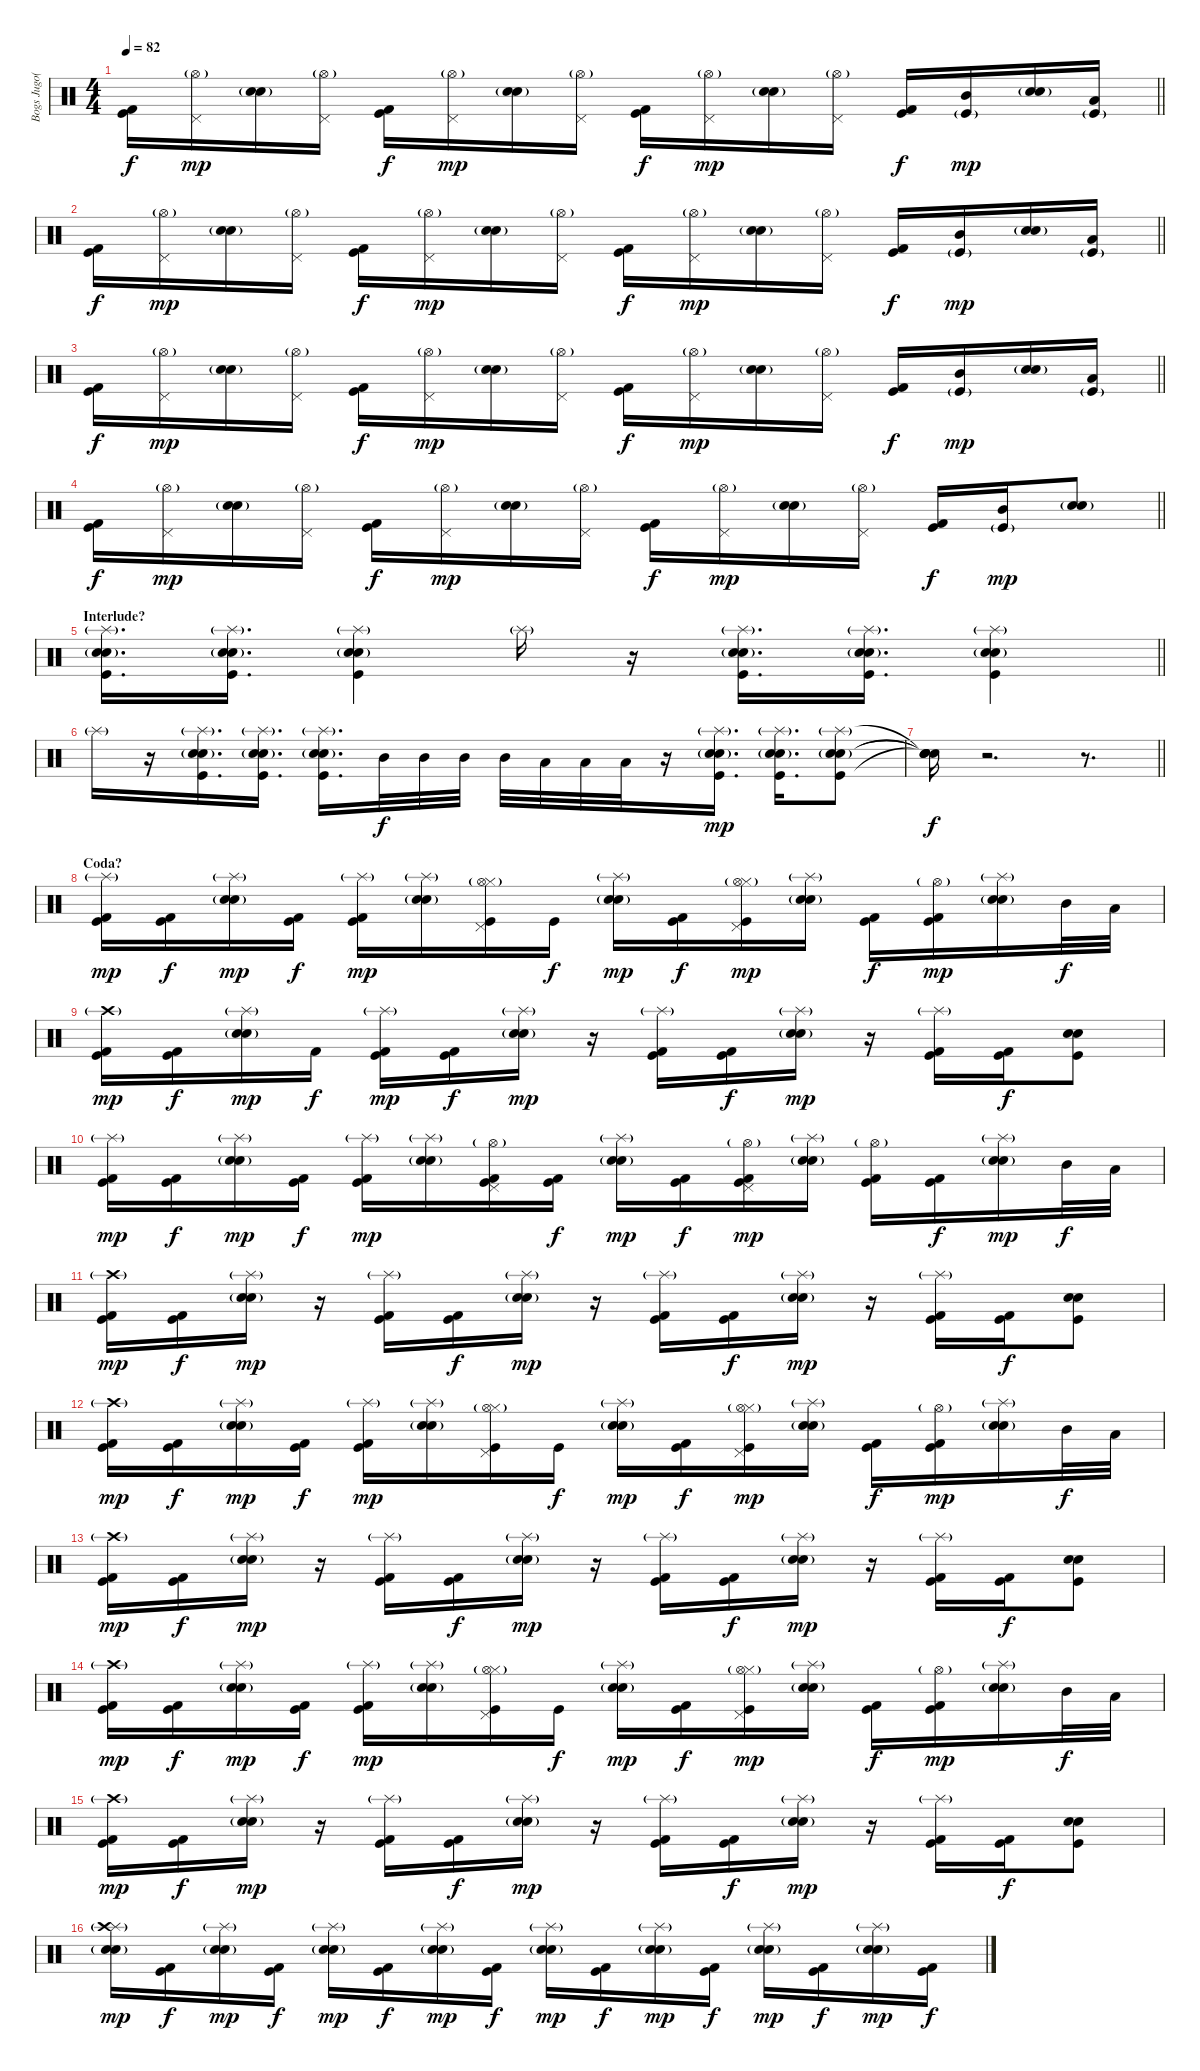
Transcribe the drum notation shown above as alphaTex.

\track ("Bogs Jugo(Drums)" "Bogs Jugo(") {instrument percussion}
\staff {score}
\articulation defaults
\ts (4 4)
\section ("" "")
\tempo 82
\clef neutral
\barLineRight lightlight
\ks c
("Kick (hit) 2" "Kick (hit)").16{dy f} ("Pedal Hi-Hat (hit)" "Hi-Hat (open)"{g}).16{dy mp} ("Electric Snare (hit)" "Snare (hit) 2"{g}).16 ("Pedal Hi-Hat (hit)" "Hi-Hat (open)"{g}).16 ("Kick (hit) 2" "Kick (hit)").16{dy f} ("Pedal Hi-Hat (hit)" "Hi-Hat (open)"{g}).16{dy mp} ("Electric Snare (hit)" "Snare (hit) 2"{g}).16 ("Pedal Hi-Hat (hit)" "Hi-Hat (open)"{g}).16 ("Kick (hit) 2" "Kick (hit)").16{dy f} ("Pedal Hi-Hat (hit)" "Hi-Hat (open)"{g}).16{dy mp} ("Electric Snare (hit)" "Snare (hit) 2"{g}).16 ("Pedal Hi-Hat (hit)" "Hi-Hat (open)"{g}).16 ("Kick (hit) 2" "Kick (hit)").16{dy f} ("Mid Tom (hit)" "Kick (hit)"{g}).16{dy mp} ("Electric Snare (hit)" "Snare (hit) 2"{g}).16 ("Low Tom (hit)" "Kick (hit)"{g}).16 |
\barLineRight lightlight
("Kick (hit) 2" "Kick (hit)").16{dy f} ("Pedal Hi-Hat (hit)" "Hi-Hat (open)"{g}).16{dy mp} ("Electric Snare (hit)" "Snare (hit) 2"{g}).16 ("Pedal Hi-Hat (hit)" "Hi-Hat (open)"{g}).16 ("Kick (hit) 2" "Kick (hit)").16{dy f} ("Pedal Hi-Hat (hit)" "Hi-Hat (open)"{g}).16{dy mp} ("Electric Snare (hit)" "Snare (hit) 2"{g}).16 ("Pedal Hi-Hat (hit)" "Hi-Hat (open)"{g}).16 ("Kick (hit) 2" "Kick (hit)").16{dy f} ("Pedal Hi-Hat (hit)" "Hi-Hat (open)"{g}).16{dy mp} ("Electric Snare (hit)" "Snare (hit) 2"{g}).16 ("Pedal Hi-Hat (hit)" "Hi-Hat (open)"{g}).16 ("Kick (hit) 2" "Kick (hit)").16{dy f} ("Mid Tom (hit)" "Kick (hit)"{g}).16{dy mp} ("Electric Snare (hit)" "Snare (hit) 2"{g}).16 ("Low Tom (hit)" "Kick (hit)"{g}).16 |
\barLineRight lightlight
("Kick (hit) 2" "Kick (hit)").16{dy f} ("Pedal Hi-Hat (hit)" "Hi-Hat (open)"{g}).16{dy mp} ("Electric Snare (hit)" "Snare (hit) 2"{g}).16 ("Pedal Hi-Hat (hit)" "Hi-Hat (open)"{g}).16 ("Kick (hit) 2" "Kick (hit)").16{dy f} ("Pedal Hi-Hat (hit)" "Hi-Hat (open)"{g}).16{dy mp} ("Electric Snare (hit)" "Snare (hit) 2"{g}).16 ("Pedal Hi-Hat (hit)" "Hi-Hat (open)"{g}).16 ("Kick (hit) 2" "Kick (hit)").16{dy f} ("Pedal Hi-Hat (hit)" "Hi-Hat (open)"{g}).16{dy mp} ("Electric Snare (hit)" "Snare (hit) 2"{g}).16 ("Pedal Hi-Hat (hit)" "Hi-Hat (open)"{g}).16 ("Kick (hit) 2" "Kick (hit)").16{dy f} ("Mid Tom (hit)" "Kick (hit)"{g}).16{dy mp} ("Electric Snare (hit)" "Snare (hit) 2"{g}).16 ("Low Tom (hit)" "Kick (hit)"{g}).16 |
\barLineRight lightlight
("Kick (hit) 2" "Kick (hit)").16{dy f} ("Pedal Hi-Hat (hit)" "Hi-Hat (open)"{g}).16{dy mp} ("Electric Snare (hit)" "Snare (hit) 2"{g}).16 ("Pedal Hi-Hat (hit)" "Hi-Hat (open)"{g}).16 ("Kick (hit) 2" "Kick (hit)").16{dy f} ("Pedal Hi-Hat (hit)" "Hi-Hat (open)"{g}).16{dy mp} ("Electric Snare (hit)" "Snare (hit) 2"{g}).16 ("Pedal Hi-Hat (hit)" "Hi-Hat (open)"{g}).16 ("Kick (hit) 2" "Kick (hit)").16{dy f} ("Pedal Hi-Hat (hit)" "Hi-Hat (open)"{g}).16{dy mp} ("Electric Snare (hit)" "Snare (hit) 2"{g}).16 ("Pedal Hi-Hat (hit)" "Hi-Hat (open)"{g}).16 ("Kick (hit) 2" "Kick (hit)").16{dy f} ("Mid Tom (hit)" "Kick (hit)"{g}).16{dy mp} ("Electric Snare (hit)" "Snare (hit) 2"{g}).8 |
\section ("" "Interlude?")
\barLineRight lightlight
("Electric Snare (hit)" "Snare (hit) 2"{g} "Splash (hit)"{g} "Kick (hit)").16{d} ("Electric Snare (hit)" "Snare (hit) 2"{g} "Splash (hit)"{g} "Kick (hit)").16{d} ("Electric Snare (hit)" "Snare (hit) 2"{g} "Splash (hit)"{g} "Kick (hit)").4 "Splash (hit)"{g}.16 r.16 ("Electric Snare (hit)" "Snare (hit) 2"{g} "Splash (hit)"{g} "Kick (hit)").16{d} ("Electric Snare (hit)" "Snare (hit) 2"{g} "Splash (hit)"{g} "Kick (hit)").16{d} ("Electric Snare (hit)" "Snare (hit) 2"{g} "Splash (hit)"{g} "Kick (hit)").4 |
"Splash (hit)"{g}.16 r.16 ("Electric Snare (hit)" "Snare (hit) 2"{g} "Splash (hit)"{g} "Kick (hit)").16{d} ("Electric Snare (hit)" "Snare (hit) 2"{g} "Splash (hit)"{g} "Kick (hit)").16{d} ("Electric Snare (hit)" "Snare (hit) 2"{g} "Splash (hit)"{g} "Kick (hit)").16{d} "Mid Tom (hit)".32{dy f} "Mid Tom (hit)".32 "Mid Tom (hit)".32 "Mid Tom (hit)".32 "Low Tom (hit)".32 "Low Tom (hit)".32 "Low Tom (hit)".32 r.16 ("Electric Snare (hit)" "Snare (hit) 2"{g} "Splash (hit)"{g} "Kick (hit)").16{d dy mp} ("Electric Snare (hit)" "Snare (hit) 2"{g} "Splash (hit)"{g} "Kick (hit)").16{d} ("Electric Snare (hit)" "Snare (hit) 2"{g} "Splash (hit)"{g} "Kick (hit)").8 |
\barLineRight lightlight
("Snare (hit)"{t} "Snare (hit)"{t} "Snare (hit)"{t} "Snare (hit)"{t}).16{dy f} r.2{d} r.8{d} |
\section ("" "Coda?")
("Kick (hit) 2" "Kick (hit)" "Splash (hit)"{g}).16{dy mp} ("Kick (hit) 2" "Kick (hit)").16{dy f} ("Electric Snare (hit)" "Snare (hit) 2"{g} "Splash (hit)"{g}).16{dy mp} ("Kick (hit) 2" "Kick (hit)").16{dy f} ("Kick (hit) 2" "Kick (hit)" "Splash (hit)"{g}).16{dy mp} ("Electric Snare (hit)" "Snare (hit) 2"{g} "Splash (hit)"{g}).16 ("Pedal Hi-Hat (hit)" "Hi-Hat (closed)" "Kick (hit)" "Hi-Hat (open)"{g}).16 "Kick (hit)".16{dy f} ("Electric Snare (hit)" "Snare (hit) 2"{g} "Splash (hit)"{g}).16{dy mp} ("Kick (hit) 2" "Kick (hit)").16{dy f} ("Pedal Hi-Hat (hit)" "Hi-Hat (closed)" "Kick (hit)" "Hi-Hat (open)"{g}).16{dy mp} ("Electric Snare (hit)" "Snare (hit) 2"{g} "Splash (hit)"{g}).16 ("Kick (hit) 2" "Kick (hit)").16{dy f} ("Kick (hit) 2" "Kick (hit)" "Hi-Hat (open)"{g}).16{dy mp} ("Electric Snare (hit)" "Snare (hit) 2"{g} "Splash (hit)"{g}).16 "Mid Tom (hit)".32{dy f} "Low Tom (hit)".32 |
("Crash high (hit)"{g} "Kick (hit) 2" "Kick (hit)").16{dy mp} ("Kick (hit) 2" "Kick (hit)").16{dy f} ("Electric Snare (hit)" "Snare (hit) 2"{g} "Splash (hit)"{g}).16{dy mp} "Kick (hit) 2".16{dy f} ("Kick (hit) 2" "Kick (hit)" "Splash (hit)"{g}).16{dy mp} ("Kick (hit) 2" "Kick (hit)").16{dy f} ("Electric Snare (hit)" "Snare (hit) 2"{g} "Splash (hit)"{g}).16{dy mp} r.16 ("Kick (hit) 2" "Kick (hit)" "Splash (hit)"{g}).16 ("Kick (hit) 2" "Kick (hit)").16{dy f} ("Electric Snare (hit)" "Snare (hit) 2"{g} "Splash (hit)"{g}).16{dy mp} r.16 ("Kick (hit) 2" "Kick (hit)" "Splash (hit)"{g}).16 ("Kick (hit) 2" "Kick (hit)").16{dy f} ("Electric Snare (hit)" "Electric Snare (hit)" "Kick (hit)").8 |
("Kick (hit) 2" "Kick (hit)" "Splash (hit)"{g}).16{dy mp} ("Kick (hit) 2" "Kick (hit)").16{dy f} ("Electric Snare (hit)" "Snare (hit) 2"{g} "Splash (hit)"{g}).16{dy mp} ("Kick (hit) 2" "Kick (hit)").16{dy f} ("Kick (hit) 2" "Kick (hit)" "Splash (hit)"{g}).16{dy mp} ("Electric Snare (hit)" "Snare (hit) 2"{g} "Splash (hit)"{g}).16 ("Pedal Hi-Hat (hit)" "Kick (hit) 2" "Kick (hit)" "Hi-Hat (open)"{g}).16 ("Kick (hit) 2" "Kick (hit)").16{dy f} ("Electric Snare (hit)" "Snare (hit) 2"{g} "Splash (hit)"{g}).16{dy mp} ("Kick (hit) 2" "Kick (hit)").16{dy f} ("Pedal Hi-Hat (hit)" "Kick (hit) 2" "Kick (hit)" "Hi-Hat (open)"{g}).16{dy mp} ("Electric Snare (hit)" "Snare (hit) 2"{g} "Splash (hit)"{g}).16 ("Kick (hit) 2" "Kick (hit)" "Hi-Hat (open)"{g}).16 ("Kick (hit) 2" "Kick (hit)").16{dy f} ("Electric Snare (hit)" "Snare (hit) 2"{g} "Splash (hit)"{g}).16{dy mp} "Mid Tom (hit)".32{dy f} "Low Tom (hit)".32 |
("Crash high (hit)"{g} "Kick (hit) 2" "Kick (hit)").16{dy mp} ("Kick (hit) 2" "Kick (hit)").16{dy f} ("Electric Snare (hit)" "Snare (hit) 2"{g} "Splash (hit)"{g}).16{dy mp} r.16 ("Kick (hit) 2" "Kick (hit)" "Splash (hit)"{g}).16 ("Kick (hit) 2" "Kick (hit)").16{dy f} ("Electric Snare (hit)" "Snare (hit) 2"{g} "Splash (hit)"{g}).16{dy mp} r.16 ("Kick (hit) 2" "Kick (hit)" "Splash (hit)"{g}).16 ("Kick (hit) 2" "Kick (hit)").16{dy f} ("Electric Snare (hit)" "Snare (hit) 2"{g} "Splash (hit)"{g}).16{dy mp} r.16 ("Kick (hit) 2" "Kick (hit)" "Splash (hit)"{g}).16 ("Kick (hit) 2" "Kick (hit)").16{dy f} ("Electric Snare (hit)" "Electric Snare (hit)" "Kick (hit)").8 |
("Crash high (hit)"{g} "Kick (hit) 2" "Kick (hit)").16{dy mp} ("Kick (hit) 2" "Kick (hit)").16{dy f} ("Electric Snare (hit)" "Snare (hit) 2"{g} "Splash (hit)"{g}).16{dy mp} ("Kick (hit) 2" "Kick (hit)").16{dy f} ("Kick (hit) 2" "Kick (hit)" "Splash (hit)"{g}).16{dy mp} ("Electric Snare (hit)" "Snare (hit) 2"{g} "Splash (hit)"{g}).16 ("Pedal Hi-Hat (hit)" "Hi-Hat (closed)" "Kick (hit)" "Hi-Hat (open)"{g}).16 "Kick (hit)".16{dy f} ("Electric Snare (hit)" "Snare (hit) 2"{g} "Splash (hit)"{g}).16{dy mp} ("Kick (hit) 2" "Kick (hit)").16{dy f} ("Pedal Hi-Hat (hit)" "Hi-Hat (closed)" "Kick (hit)" "Hi-Hat (open)"{g}).16{dy mp} ("Electric Snare (hit)" "Snare (hit) 2"{g} "Splash (hit)"{g}).16 ("Kick (hit) 2" "Kick (hit)").16{dy f} ("Kick (hit) 2" "Kick (hit)" "Hi-Hat (open)"{g}).16{dy mp} ("Electric Snare (hit)" "Snare (hit) 2"{g} "Splash (hit)"{g}).16 "Mid Tom (hit)".32{dy f} "Low Tom (hit)".32 |
("Crash high (hit)"{g} "Kick (hit) 2" "Kick (hit)").16{dy mp} ("Kick (hit) 2" "Kick (hit)").16{dy f} ("Electric Snare (hit)" "Snare (hit) 2"{g} "Splash (hit)"{g}).16{dy mp} r.16 ("Kick (hit) 2" "Kick (hit)" "Splash (hit)"{g}).16 ("Kick (hit) 2" "Kick (hit)").16{dy f} ("Electric Snare (hit)" "Snare (hit) 2"{g} "Splash (hit)"{g}).16{dy mp} r.16 ("Kick (hit) 2" "Kick (hit)" "Splash (hit)"{g}).16 ("Kick (hit) 2" "Kick (hit)").16{dy f} ("Electric Snare (hit)" "Snare (hit) 2"{g} "Splash (hit)"{g}).16{dy mp} r.16 ("Kick (hit) 2" "Kick (hit)" "Splash (hit)"{g}).16 ("Kick (hit) 2" "Kick (hit)").16{dy f} ("Electric Snare (hit)" "Electric Snare (hit)" "Kick (hit)").8 |
("Crash high (hit)"{g} "Kick (hit) 2" "Kick (hit)").16{dy mp} ("Kick (hit) 2" "Kick (hit)").16{dy f} ("Electric Snare (hit)" "Snare (hit) 2"{g} "Splash (hit)"{g}).16{dy mp} ("Kick (hit) 2" "Kick (hit)").16{dy f} ("Kick (hit) 2" "Kick (hit)" "Splash (hit)"{g}).16{dy mp} ("Electric Snare (hit)" "Snare (hit) 2"{g} "Splash (hit)"{g}).16 ("Pedal Hi-Hat (hit)" "Hi-Hat (closed)" "Kick (hit)" "Hi-Hat (open)"{g}).16 "Kick (hit)".16{dy f} ("Electric Snare (hit)" "Snare (hit) 2"{g} "Splash (hit)"{g}).16{dy mp} ("Kick (hit) 2" "Kick (hit)").16{dy f} ("Pedal Hi-Hat (hit)" "Hi-Hat (closed)" "Kick (hit)" "Hi-Hat (open)"{g}).16{dy mp} ("Electric Snare (hit)" "Snare (hit) 2"{g} "Splash (hit)"{g}).16 ("Kick (hit) 2" "Kick (hit)").16{dy f} ("Kick (hit) 2" "Kick (hit)" "Hi-Hat (open)"{g}).16{dy mp} ("Electric Snare (hit)" "Snare (hit) 2"{g} "Splash (hit)"{g}).16 "Mid Tom (hit)".32{dy f} "Low Tom (hit)".32 |
("Crash high (hit)"{g} "Kick (hit) 2" "Kick (hit)").16{dy mp} ("Kick (hit) 2" "Kick (hit)").16{dy f} ("Electric Snare (hit)" "Snare (hit) 2"{g} "Splash (hit)"{g}).16{dy mp} r.16 ("Kick (hit) 2" "Kick (hit)" "Splash (hit)"{g}).16 ("Kick (hit) 2" "Kick (hit)").16{dy f} ("Electric Snare (hit)" "Snare (hit) 2"{g} "Splash (hit)"{g}).16{dy mp} r.16 ("Kick (hit) 2" "Kick (hit)" "Splash (hit)"{g}).16 ("Kick (hit) 2" "Kick (hit)").16{dy f} ("Electric Snare (hit)" "Snare (hit) 2"{g} "Splash (hit)"{g}).16{dy mp} r.16 ("Kick (hit) 2" "Kick (hit)" "Splash (hit)"{g}).16 ("Kick (hit) 2" "Kick (hit)").16{dy f} ("Electric Snare (hit)" "Electric Snare (hit)" "Kick (hit)").8 |
("Electric Snare (hit)" "Snare (hit) 2"{g} "Splash (hit)"{g} "Crash high (hit)"{g}).16{dy mp} ("Kick (hit) 2" "Kick (hit)").16{dy f} ("Electric Snare (hit)" "Snare (hit) 2"{g} "Splash (hit)"{g}).16{dy mp} ("Kick (hit) 2" "Kick (hit)").16{dy f} ("Electric Snare (hit)" "Snare (hit) 2"{g} "Splash (hit)"{g}).16{dy mp} ("Kick (hit) 2" "Kick (hit)").16{dy f} ("Electric Snare (hit)" "Snare (hit) 2"{g} "Splash (hit)"{g}).16{dy mp} ("Kick (hit) 2" "Kick (hit)").16{dy f} ("Electric Snare (hit)" "Snare (hit) 2"{g} "Splash (hit)"{g}).16{dy mp} ("Kick (hit) 2" "Kick (hit)").16{dy f} ("Electric Snare (hit)" "Snare (hit) 2"{g} "Splash (hit)"{g}).16{dy mp} ("Kick (hit) 2" "Kick (hit)").16{dy f} ("Electric Snare (hit)" "Snare (hit) 2"{g} "Splash (hit)"{g}).16{dy mp} ("Kick (hit) 2" "Kick (hit)").16{dy f} ("Electric Snare (hit)" "Snare (hit) 2"{g} "Splash (hit)"{g}).16{dy mp} ("Kick (hit) 2" "Kick (hit)").16{dy f}
